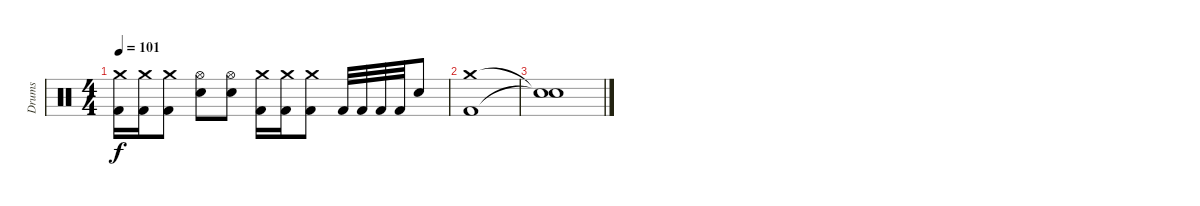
\track ("Drums" "Drums") {instrument percussion}
\staff {score}
\articulation defaults
\ts (4 4)
\tempo 101
\clef neutral
\ks c
("Crash medium (hit)" "Kick (hit) 2").16{dy f} ("Crash medium (hit)" "Kick (hit) 2").16 ("Crash medium (hit)" "Kick (hit) 2").8 ("Hi-Hat (open)" "Electric Snare (hit)").8 ("Hi-Hat (open)" "Electric Snare (hit)").8 ("Crash medium (hit)" "Kick (hit) 2").16 ("Crash medium (hit)" "Kick (hit) 2").16 ("Crash medium (hit)" "Kick (hit) 2").8 "Kick (hit) 2".32 "Kick (hit) 2".32 "Kick (hit) 2".32 "Kick (hit) 2".32 "Electric Snare (hit)".8 |
("Crash medium (hit)" "Kick (hit) 2").1 |
("Snare (hit)"{t} "Snare (hit)"{t}).1
